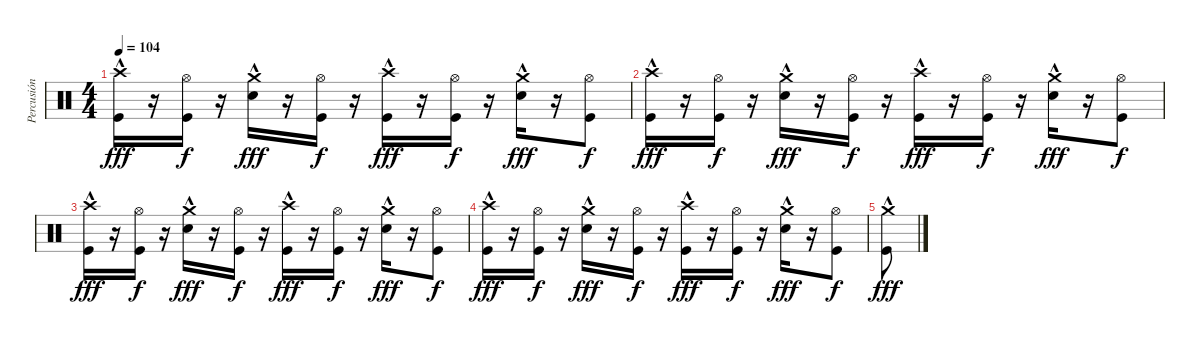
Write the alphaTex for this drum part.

\track ("Percusión" "Percusión") {instrument percussion}
\staff {score}
\articulation defaults
\ts (4 4)
\tempo 104
\clef neutral
\ks c
("Crash high (hit)"{hac} "Kick (hit)").16{dy fff} r.16 ("Hi-Hat (open)" "Kick (hit)").16{dy f} r.16 ("Crash medium (hit)"{hac} "Snare (hit) 2"{hac}).16{dy fff} r.16 ("Hi-Hat (open)" "Kick (hit)").16{dy f} r.16 ("Crash high (hit)"{hac} "Kick (hit)").16{dy fff} r.16 ("Hi-Hat (open)" "Kick (hit)").16{dy f} r.16 ("Crash medium (hit)"{hac} "Snare (hit) 2"{hac}).16{dy fff} r.16 ("Hi-Hat (open)" "Kick (hit)").8{dy f} |
("Crash high (hit)"{hac} "Kick (hit)").16{dy fff} r.16 ("Hi-Hat (open)" "Kick (hit)").16{dy f} r.16 ("Crash medium (hit)"{hac} "Snare (hit) 2"{hac}).16{dy fff} r.16 ("Hi-Hat (open)" "Kick (hit)").16{dy f} r.16 ("Crash high (hit)"{hac} "Kick (hit)").16{dy fff} r.16 ("Hi-Hat (open)" "Kick (hit)").16{dy f} r.16 ("Crash medium (hit)"{hac} "Snare (hit) 2"{hac}).16{dy fff} r.16 ("Hi-Hat (open)" "Kick (hit)").8{dy f} |
("Crash high (hit)"{hac} "Kick (hit)").16{dy fff} r.16 ("Hi-Hat (open)" "Kick (hit)").16{dy f} r.16 ("Crash medium (hit)"{hac} "Snare (hit) 2"{hac}).16{dy fff} r.16 ("Hi-Hat (open)" "Kick (hit)").16{dy f} r.16 ("Crash high (hit)"{hac} "Kick (hit)").16{dy fff} r.16 ("Hi-Hat (open)" "Kick (hit)").16{dy f} r.16 ("Crash medium (hit)"{hac} "Snare (hit) 2"{hac}).16{dy fff} r.16 ("Hi-Hat (open)" "Kick (hit)").8{dy f} |
("Crash high (hit)"{hac} "Kick (hit)").16{dy fff} r.16 ("Hi-Hat (open)" "Kick (hit)").16{dy f} r.16 ("Crash medium (hit)"{hac} "Snare (hit) 2"{hac}).16{dy fff} r.16 ("Hi-Hat (open)" "Kick (hit)").16{dy f} r.16 ("Crash high (hit)"{hac} "Kick (hit)").16{dy fff} r.16 ("Hi-Hat (open)" "Kick (hit)").16{dy f} r.16 ("Crash medium (hit)"{hac} "Snare (hit) 2"{hac}).16{dy fff} r.16 ("Hi-Hat (open)" "Kick (hit)").8{dy f} |
("Crash medium (hit)"{hac} "Kick (hit)").8{dy fff}
